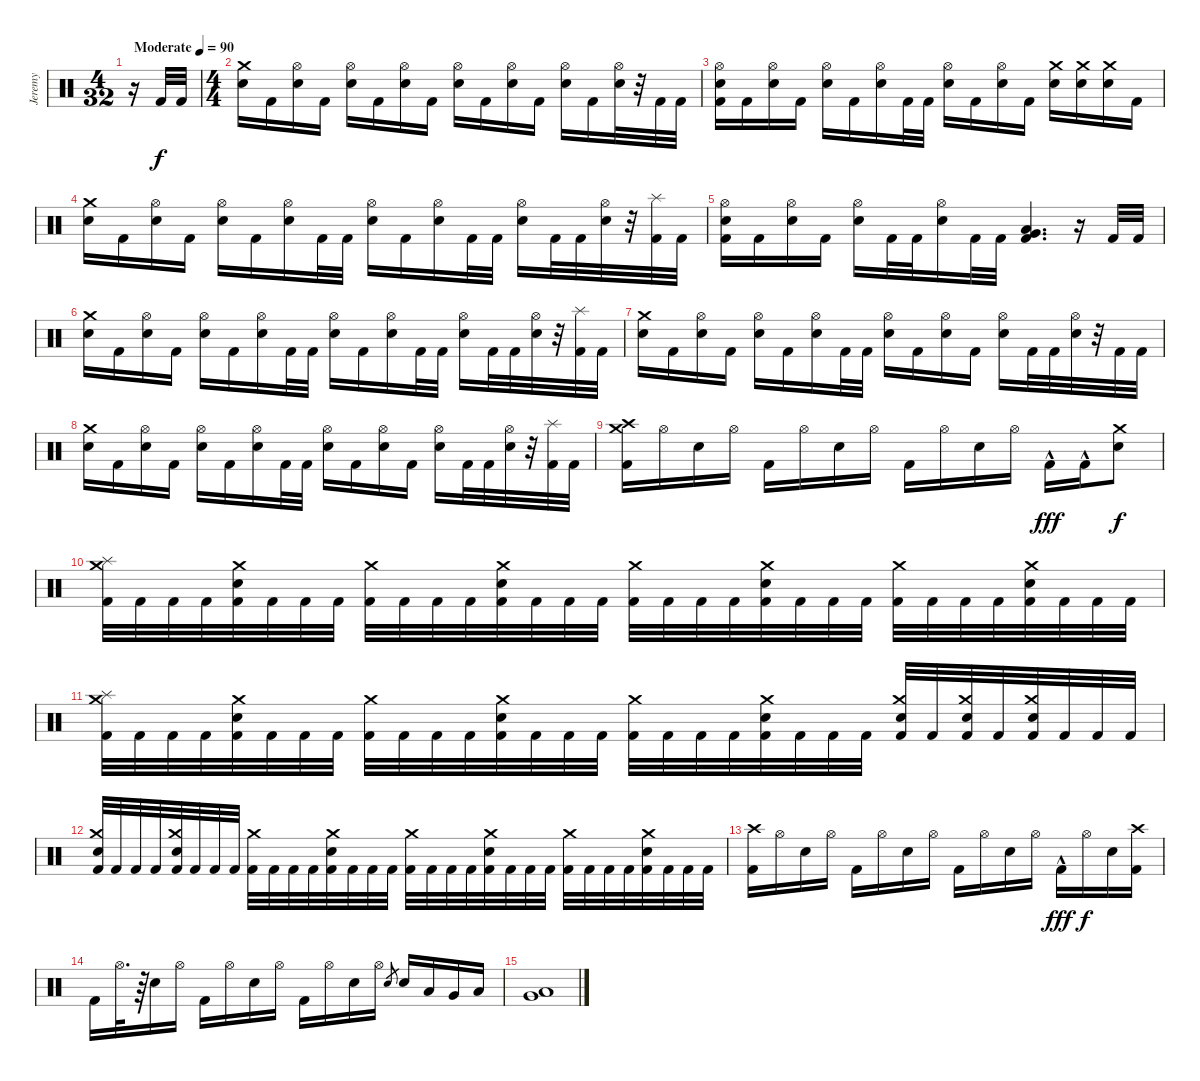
\track ("Jeremy" "Jeremy") {instrument percussion}
\staff {score}
\articulation defaults
\ts (4 32)
\tempo (90 "Moderate")
\clef neutral
\ks c
r.16{dy f} "Kick (hit) 2".32 "Kick (hit) 2".32 |
\ts (4 4)
("Crash medium (hit)" "Electric Snare (hit)").16 "Kick (hit) 2".16 ("Hi-Hat (open)" "Electric Snare (hit)").16 "Kick (hit) 2".16 ("Hi-Hat (open)" "Electric Snare (hit)").16 "Kick (hit) 2".16 ("Hi-Hat (open)" "Electric Snare (hit)").16 "Kick (hit) 2".16 ("Hi-Hat (open)" "Electric Snare (hit)").16 "Kick (hit) 2".16 ("Hi-Hat (open)" "Electric Snare (hit)").16 "Kick (hit) 2".16 ("Hi-Hat (open)" "Electric Snare (hit)").16 "Kick (hit) 2".16 ("Hi-Hat (open)" "Electric Snare (hit)").32 r.32 "Kick (hit) 2".32 "Kick (hit) 2".32 |
("Hi-Hat (open)" "Electric Snare (hit)" "Kick (hit) 2").16 "Kick (hit) 2".16 ("Hi-Hat (open)" "Electric Snare (hit)").16 "Kick (hit) 2".16 ("Hi-Hat (open)" "Electric Snare (hit)").16 "Kick (hit) 2".16 ("Hi-Hat (open)" "Electric Snare (hit)").16 "Kick (hit) 2".32 "Kick (hit) 2".32 ("Hi-Hat (open)" "Electric Snare (hit)").16 "Kick (hit) 2".16 ("Hi-Hat (open)" "Electric Snare (hit)").16 "Kick (hit) 2".16 ("Crash medium (hit)" "Electric Snare (hit)").16 ("Crash medium (hit)" "Electric Snare (hit)").16 ("Crash medium (hit)" "Electric Snare (hit)").16 "Kick (hit) 2".16 |
("Crash medium (hit)" "Electric Snare (hit)").16 "Kick (hit) 2".16 ("Hi-Hat (open)" "Electric Snare (hit)").16 "Kick (hit) 2".16 ("Hi-Hat (open)" "Electric Snare (hit)").16 "Kick (hit) 2".16 ("Hi-Hat (open)" "Electric Snare (hit)").16 "Kick (hit) 2".32 "Kick (hit) 2".32 ("Hi-Hat (open)" "Electric Snare (hit)").16 "Kick (hit) 2".16 ("Hi-Hat (open)" "Electric Snare (hit)").16 "Kick (hit) 2".32 "Kick (hit) 2".32 ("Hi-Hat (open)" "Electric Snare (hit)").16 "Kick (hit) 2".32 "Kick (hit) 2".32 ("Hi-Hat (open)" "Electric Snare (hit)").32 r.32 ("Splash (hit)" "Kick (hit) 2").32 "Kick (hit) 2".32 |
("Hi-Hat (open)" "Electric Snare (hit)" "Kick (hit) 2").16 "Kick (hit) 2".16 ("Hi-Hat (open)" "Electric Snare (hit)").16 "Kick (hit) 2".16 ("Hi-Hat (open)" "Electric Snare (hit)").16 "Kick (hit) 2".32 "Kick (hit) 2".32 ("Hi-Hat (open)" "Electric Snare (hit)").16 "Kick (hit) 2".32 "Kick (hit) 2".32 ("Very Low Tom (hit)" "Low Floor Tom (hit)" "Kick (hit) 2").4{d} r.16 "Kick (hit) 2".32 "Kick (hit) 2".32 |
("Crash medium (hit)" "Electric Snare (hit)").16 "Kick (hit) 2".16 ("Hi-Hat (open)" "Electric Snare (hit)").16 "Kick (hit) 2".16 ("Hi-Hat (open)" "Electric Snare (hit)").16 "Kick (hit) 2".16 ("Hi-Hat (open)" "Electric Snare (hit)").16 "Kick (hit) 2".32 "Kick (hit) 2".32 ("Hi-Hat (open)" "Electric Snare (hit)").16 "Kick (hit) 2".16 ("Hi-Hat (open)" "Electric Snare (hit)").16 "Kick (hit) 2".32 "Kick (hit) 2".32 ("Hi-Hat (open)" "Electric Snare (hit)").16 "Kick (hit) 2".32 "Kick (hit) 2".32 ("Hi-Hat (open)" "Electric Snare (hit)").32 r.32 ("Splash (hit)" "Kick (hit) 2").32 "Kick (hit) 2".32 |
("Crash medium (hit)" "Electric Snare (hit)").16 "Kick (hit) 2".16 ("Hi-Hat (open)" "Electric Snare (hit)").16 "Kick (hit) 2".16 ("Hi-Hat (open)" "Electric Snare (hit)").16 "Kick (hit) 2".16 ("Hi-Hat (open)" "Electric Snare (hit)").16 "Kick (hit) 2".32 "Kick (hit) 2".32 ("Hi-Hat (open)" "Electric Snare (hit)").16 "Kick (hit) 2".16 ("Hi-Hat (open)" "Electric Snare (hit)").16 "Kick (hit) 2".16 ("Hi-Hat (open)" "Electric Snare (hit)").16 "Kick (hit) 2".32 "Kick (hit) 2".32 ("Hi-Hat (open)" "Electric Snare (hit)").32 r.32 "Kick (hit) 2".32 "Kick (hit) 2".32 |
("Crash medium (hit)" "Electric Snare (hit)").16 "Kick (hit) 2".16 ("Hi-Hat (open)" "Electric Snare (hit)").16 "Kick (hit) 2".16 ("Hi-Hat (open)" "Electric Snare (hit)").16 "Kick (hit) 2".16 ("Hi-Hat (open)" "Electric Snare (hit)").16 "Kick (hit) 2".32 "Kick (hit) 2".32 ("Hi-Hat (open)" "Electric Snare (hit)").16 "Kick (hit) 2".16 ("Hi-Hat (open)" "Electric Snare (hit)").16 "Kick (hit) 2".16 ("Hi-Hat (open)" "Electric Snare (hit)").16 "Kick (hit) 2".32 "Kick (hit) 2".32 ("Hi-Hat (open)" "Electric Snare (hit)").32 r.32 ("Splash (hit)" "Kick (hit) 2").32 "Kick (hit) 2".32 |
("Crash high (hit)" "Crash medium (hit)" "Kick (hit) 2").16 "Hi-Hat (open)".16 "Snare (hit) 2".16 "Hi-Hat (open)".16 "Kick (hit) 2".16 "Hi-Hat (open)".16 "Snare (hit) 2".16 "Hi-Hat (open)".16 "Kick (hit) 2".16 "Hi-Hat (open)".16 "Snare (hit) 2".16 "Hi-Hat (open)".16 "Kick (hit) 2"{hac}.16{dy fff} "Kick (hit) 2"{hac}.16 ("Crash medium (hit)" "Snare (hit) 2").8{dy f} |
("Crash medium (hit)" "Splash (hit)" "Kick (hit) 2").32 "Kick (hit) 2".32 "Kick (hit) 2".32 "Kick (hit) 2".32 ("Crash medium (hit)" "Electric Snare (hit)" "Kick (hit) 2").32 "Kick (hit) 2".32 "Kick (hit) 2".32 "Kick (hit) 2".32 ("Crash medium (hit)" "Kick (hit) 2").32 "Kick (hit) 2".32 "Kick (hit) 2".32 "Kick (hit) 2".32 ("Crash medium (hit)" "Electric Snare (hit)" "Kick (hit) 2").32 "Kick (hit) 2".32 "Kick (hit) 2".32 "Kick (hit) 2".32 ("Crash medium (hit)" "Kick (hit) 2").32 "Kick (hit) 2".32 "Kick (hit) 2".32 "Kick (hit) 2".32 ("Crash medium (hit)" "Electric Snare (hit)" "Kick (hit) 2").32 "Kick (hit) 2".32 "Kick (hit) 2".32 "Kick (hit) 2".32 ("Crash medium (hit)" "Kick (hit) 2").32 "Kick (hit) 2".32 "Kick (hit) 2".32 "Kick (hit) 2".32 ("Crash medium (hit)" "Electric Snare (hit)" "Kick (hit) 2").32 "Kick (hit) 2".32 "Kick (hit) 2".32 "Kick (hit) 2".32 |
("Crash medium (hit)" "Splash (hit)" "Kick (hit) 2").32 "Kick (hit) 2".32 "Kick (hit) 2".32 "Kick (hit) 2".32 ("Crash medium (hit)" "Electric Snare (hit)" "Kick (hit) 2").32 "Kick (hit) 2".32 "Kick (hit) 2".32 "Kick (hit) 2".32 ("Crash medium (hit)" "Kick (hit) 2").32 "Kick (hit) 2".32 "Kick (hit) 2".32 "Kick (hit) 2".32 ("Crash medium (hit)" "Electric Snare (hit)" "Kick (hit) 2").32 "Kick (hit) 2".32 "Kick (hit) 2".32 "Kick (hit) 2".32 ("Crash medium (hit)" "Kick (hit) 2").32 "Kick (hit) 2".32 "Kick (hit) 2".32 "Kick (hit) 2".32 ("Crash medium (hit)" "Electric Snare (hit)" "Kick (hit) 2").32 "Kick (hit) 2".32 "Kick (hit) 2".32 "Kick (hit) 2".32 ("Crash medium (hit)" "Snare (hit) 2" "Kick (hit) 2").32 "Kick (hit) 2".32 ("Crash medium (hit)" "Snare (hit) 2" "Kick (hit) 2").32 "Kick (hit) 2".32 ("Crash medium (hit)" "Electric Snare (hit)" "Kick (hit) 2").32 "Kick (hit) 2".32 "Kick (hit) 2".32 "Kick (hit) 2".32 |
("Crash medium (hit)" "Snare (hit) 2" "Kick (hit) 2").32 "Kick (hit) 2".32 "Kick (hit) 2".32 "Kick (hit) 2".32 ("Crash medium (hit)" "Electric Snare (hit)" "Kick (hit) 2").32 "Kick (hit) 2".32 "Kick (hit) 2".32 "Kick (hit) 2".32 ("Crash medium (hit)" "Kick (hit) 2").32 "Kick (hit) 2".32 "Kick (hit) 2".32 "Kick (hit) 2".32 ("Crash medium (hit)" "Electric Snare (hit)" "Kick (hit) 2").32 "Kick (hit) 2".32 "Kick (hit) 2".32 "Kick (hit) 2".32 ("Crash medium (hit)" "Kick (hit) 2").32 "Kick (hit) 2".32 "Kick (hit) 2".32 "Kick (hit) 2".32 ("Crash medium (hit)" "Electric Snare (hit)" "Kick (hit) 2").32 "Kick (hit) 2".32 "Kick (hit) 2".32 "Kick (hit) 2".32 ("Crash medium (hit)" "Kick (hit) 2").32 "Kick (hit) 2".32 "Kick (hit) 2".32 "Kick (hit) 2".32 ("Crash medium (hit)" "Electric Snare (hit)" "Kick (hit) 2").32 "Kick (hit) 2".32 "Kick (hit) 2".32 "Kick (hit) 2".32 |
("Crash high (hit)" "Kick (hit) 2").16 "Hi-Hat (open)".16 "Snare (hit) 2".16 "Hi-Hat (open)".16 "Kick (hit) 2".16 "Hi-Hat (open)".16 "Snare (hit) 2".16 "Hi-Hat (open)".16 "Kick (hit) 2".16 "Hi-Hat (open)".16 "Snare (hit) 2".16 "Hi-Hat (open)".16 "Kick (hit) 2"{hac}.16{dy fff} "Hi-Hat (open)".16{dy f} "Snare (hit) 2".16 ("Crash high (hit)" "Kick (hit) 2").16 |
"Kick (hit) 2".16 "Hi-Hat (open)".32{d} r.64 "Snare (hit) 2".16 "Hi-Hat (open)".16 "Kick (hit) 2".16 "Hi-Hat (open)".16 "Snare (hit) 2".16 "Hi-Hat (open)".16 "Kick (hit) 2".16 "Hi-Hat (open)".16 "Snare (hit) 2".16 "Hi-Hat (open)".16 "Snare (hit) 2".8{gr} "Snare (hit) 2".16 "Low Tom (hit)".16 "Very Low Tom (hit)".16 "Low Floor Tom (hit)".16 |
("Very Low Tom (hit)" "Low Tom (hit)").1
